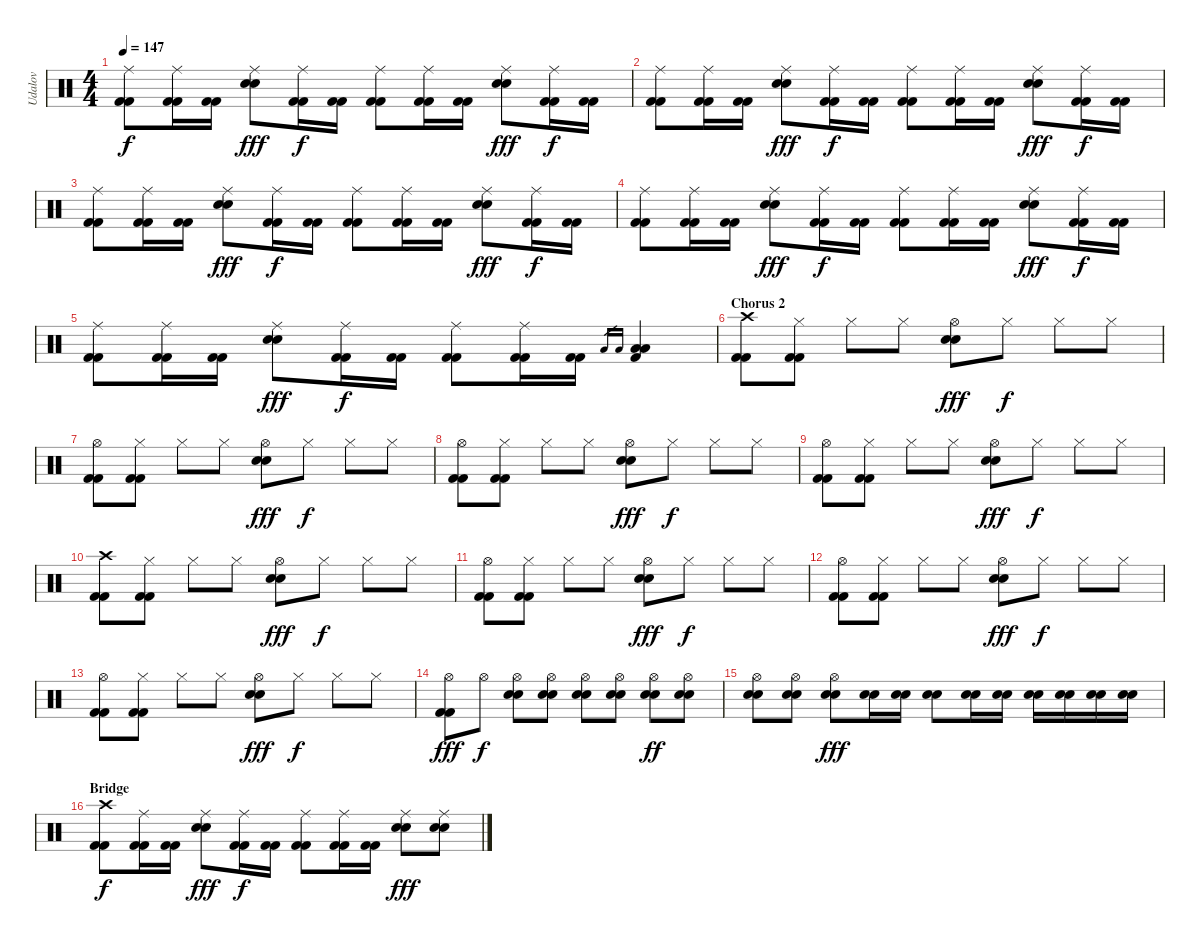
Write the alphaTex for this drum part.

\track ("Udalov" "Udalov") {instrument percussion}
\staff {score}
\articulation defaults
\ts (4 4)
\tempo 147
\clef neutral
\ks c
("Ride (middle)" "Kick (hit) 2" "Kick (hit) 2").8{dy f} ("Ride (middle)" "Kick (hit) 2" "Kick (hit) 2").16 ("Kick (hit) 2" "Kick (hit) 2").16 ("Ride (middle)" "Electric Snare (hit)" "Electric Snare (hit)").8{dy fff} ("Ride (middle)" "Kick (hit) 2" "Kick (hit) 2").16{dy f} ("Kick (hit) 2" "Kick (hit) 2").16 ("Ride (middle)" "Kick (hit) 2" "Kick (hit) 2").8 ("Ride (middle)" "Kick (hit) 2" "Kick (hit) 2").16 ("Kick (hit) 2" "Kick (hit) 2").16 ("Ride (middle)" "Electric Snare (hit)" "Electric Snare (hit)").8{dy fff} ("Ride (middle)" "Kick (hit) 2" "Kick (hit) 2").16{dy f} ("Kick (hit) 2" "Kick (hit) 2").16 |
("Ride (middle)" "Kick (hit) 2" "Kick (hit) 2").8 ("Ride (middle)" "Kick (hit) 2" "Kick (hit) 2").16 ("Kick (hit) 2" "Kick (hit) 2").16 ("Ride (middle)" "Electric Snare (hit)" "Electric Snare (hit)").8{dy fff} ("Ride (middle)" "Kick (hit) 2" "Kick (hit) 2").16{dy f} ("Kick (hit) 2" "Kick (hit) 2").16 ("Ride (middle)" "Kick (hit) 2" "Kick (hit) 2").8 ("Ride (middle)" "Kick (hit) 2" "Kick (hit) 2").16 ("Kick (hit) 2" "Kick (hit) 2").16 ("Ride (middle)" "Electric Snare (hit)" "Electric Snare (hit)").8{dy fff} ("Ride (middle)" "Kick (hit) 2" "Kick (hit) 2").16{dy f} ("Kick (hit) 2" "Kick (hit) 2").16 |
("Ride (middle)" "Kick (hit) 2" "Kick (hit) 2").8 ("Ride (middle)" "Kick (hit) 2" "Kick (hit) 2").16 ("Kick (hit) 2" "Kick (hit) 2").16 ("Ride (middle)" "Electric Snare (hit)" "Electric Snare (hit)").8{dy fff} ("Ride (middle)" "Kick (hit) 2" "Kick (hit) 2").16{dy f} ("Kick (hit) 2" "Kick (hit) 2").16 ("Ride (middle)" "Kick (hit) 2" "Kick (hit) 2").8 ("Ride (middle)" "Kick (hit) 2" "Kick (hit) 2").16 ("Kick (hit) 2" "Kick (hit) 2").16 ("Ride (middle)" "Electric Snare (hit)" "Electric Snare (hit)").8{dy fff} ("Ride (middle)" "Kick (hit) 2" "Kick (hit) 2").16{dy f} ("Kick (hit) 2" "Kick (hit) 2").16 |
("Ride (middle)" "Kick (hit) 2" "Kick (hit) 2").8 ("Ride (middle)" "Kick (hit) 2" "Kick (hit) 2").16 ("Kick (hit) 2" "Kick (hit) 2").16 ("Ride (middle)" "Electric Snare (hit)" "Electric Snare (hit)").8{dy fff} ("Ride (middle)" "Kick (hit) 2" "Kick (hit) 2").16{dy f} ("Kick (hit) 2" "Kick (hit) 2").16 ("Ride (middle)" "Kick (hit) 2" "Kick (hit) 2").8 ("Ride (middle)" "Kick (hit) 2" "Kick (hit) 2").16 ("Kick (hit) 2" "Kick (hit) 2").16 ("Ride (middle)" "Electric Snare (hit)" "Electric Snare (hit)").8{dy fff} ("Ride (middle)" "Kick (hit) 2" "Kick (hit) 2").16{dy f} ("Kick (hit) 2" "Kick (hit) 2").16 |
("Ride (middle)" "Kick (hit) 2" "Kick (hit) 2").8 ("Ride (middle)" "Kick (hit) 2" "Kick (hit) 2").16 ("Kick (hit) 2" "Kick (hit) 2").16 ("Ride (middle)" "Electric Snare (hit)" "Electric Snare (hit)").8{dy fff} ("Ride (middle)" "Kick (hit) 2" "Kick (hit) 2").16{dy f} ("Kick (hit) 2" "Kick (hit) 2").16 ("Ride (middle)" "Kick (hit) 2" "Kick (hit) 2").8 ("Ride (middle)" "Kick (hit) 2" "Kick (hit) 2").16 ("Kick (hit) 2" "Kick (hit) 2").16 "Low Tom (hit)".16{gr} "Low Tom (hit)".16{gr} ("Low Tom (hit)" "Low Tom (hit)" "Kick (hit) 2").4 |
\section ("" "Chorus 2")
("Crash high (hit)" "Kick (hit) 2" "Kick (hit) 2").8 ("Hi-Hat (closed)" "Kick (hit) 2" "Kick (hit) 2").8 "Hi-Hat (closed)".8 "Hi-Hat (closed)".8 ("Hi-Hat (open)" "Electric Snare (hit)" "Electric Snare (hit)").8{dy fff} "Hi-Hat (closed)".8{dy f} "Hi-Hat (closed)".8 "Hi-Hat (closed)".8 |
("Hi-Hat (open)" "Kick (hit) 2" "Kick (hit) 2").8 ("Hi-Hat (closed)" "Kick (hit) 2" "Kick (hit) 2").8 "Hi-Hat (closed)".8 "Hi-Hat (closed)".8 ("Hi-Hat (open)" "Electric Snare (hit)" "Electric Snare (hit)").8{dy fff} "Hi-Hat (closed)".8{dy f} "Hi-Hat (closed)".8 "Hi-Hat (closed)".8 |
("Hi-Hat (open)" "Kick (hit) 2" "Kick (hit) 2").8 ("Hi-Hat (closed)" "Kick (hit) 2" "Kick (hit) 2").8 "Hi-Hat (closed)".8 "Hi-Hat (closed)".8 ("Hi-Hat (open)" "Electric Snare (hit)" "Electric Snare (hit)").8{dy fff} "Hi-Hat (closed)".8{dy f} "Hi-Hat (closed)".8 "Hi-Hat (closed)".8 |
("Hi-Hat (open)" "Kick (hit) 2" "Kick (hit) 2").8 ("Hi-Hat (closed)" "Kick (hit) 2" "Kick (hit) 2").8 "Hi-Hat (closed)".8 "Hi-Hat (closed)".8 ("Hi-Hat (open)" "Electric Snare (hit)" "Electric Snare (hit)").8{dy fff} "Hi-Hat (closed)".8{dy f} "Hi-Hat (closed)".8 "Hi-Hat (closed)".8 |
("Crash high (hit)" "Kick (hit) 2" "Kick (hit) 2").8 ("Hi-Hat (closed)" "Kick (hit) 2" "Kick (hit) 2").8 "Hi-Hat (closed)".8 "Hi-Hat (closed)".8 ("Hi-Hat (open)" "Electric Snare (hit)" "Electric Snare (hit)").8{dy fff} "Hi-Hat (closed)".8{dy f} "Hi-Hat (closed)".8 "Hi-Hat (closed)".8 |
("Hi-Hat (open)" "Kick (hit) 2" "Kick (hit) 2").8 ("Hi-Hat (closed)" "Kick (hit) 2" "Kick (hit) 2").8 "Hi-Hat (closed)".8 "Hi-Hat (closed)".8 ("Hi-Hat (open)" "Electric Snare (hit)" "Electric Snare (hit)").8{dy fff} "Hi-Hat (closed)".8{dy f} "Hi-Hat (closed)".8 "Hi-Hat (closed)".8 |
("Hi-Hat (open)" "Kick (hit) 2" "Kick (hit) 2").8 ("Hi-Hat (closed)" "Kick (hit) 2" "Kick (hit) 2").8 "Hi-Hat (closed)".8 "Hi-Hat (closed)".8 ("Hi-Hat (open)" "Electric Snare (hit)" "Electric Snare (hit)").8{dy fff} "Hi-Hat (closed)".8{dy f} "Hi-Hat (closed)".8 "Hi-Hat (closed)".8 |
("Hi-Hat (open)" "Kick (hit) 2" "Kick (hit) 2").8 ("Hi-Hat (closed)" "Kick (hit) 2" "Kick (hit) 2").8 "Hi-Hat (closed)".8 "Hi-Hat (closed)".8 ("Hi-Hat (open)" "Electric Snare (hit)" "Electric Snare (hit)").8{dy fff} "Hi-Hat (closed)".8{dy f} "Hi-Hat (closed)".8 "Hi-Hat (closed)".8 |
("Hi-Hat (open)" "Kick (hit) 2" "Kick (hit) 2").8{dy fff} "Hi-Hat (open)".8{dy f} ("Hi-Hat (open)" "Electric Snare (hit)" "Electric Snare (hit)").8 ("Hi-Hat (open)" "Electric Snare (hit)" "Electric Snare (hit)").8 ("Hi-Hat (open)" "Electric Snare (hit)" "Electric Snare (hit)").8 ("Hi-Hat (open)" "Electric Snare (hit)" "Electric Snare (hit)").8 ("Hi-Hat (open)" "Electric Snare (hit)" "Electric Snare (hit)").8{dy ff} ("Hi-Hat (open)" "Electric Snare (hit)" "Electric Snare (hit)").8 |
("Hi-Hat (open)" "Electric Snare (hit)" "Electric Snare (hit)").8 ("Hi-Hat (open)" "Electric Snare (hit)" "Electric Snare (hit)").8 ("Hi-Hat (open)" "Electric Snare (hit)" "Electric Snare (hit)").8{dy fff} ("Electric Snare (hit)" "Electric Snare (hit)").16 ("Electric Snare (hit)" "Electric Snare (hit)").16 ("Electric Snare (hit)" "Electric Snare (hit)").8 ("Electric Snare (hit)" "Electric Snare (hit)").16 ("Electric Snare (hit)" "Electric Snare (hit)").16 ("Electric Snare (hit)" "Electric Snare (hit)").16 ("Electric Snare (hit)" "Electric Snare (hit)").16 ("Electric Snare (hit)" "Electric Snare (hit)").16 ("Electric Snare (hit)" "Electric Snare (hit)").16 |
\section ("" "Bridge")
("Crash high (hit)" "Kick (hit) 2" "Kick (hit) 2").8{dy f} ("Ride (middle)" "Kick (hit) 2" "Kick (hit) 2").16 ("Kick (hit) 2" "Kick (hit) 2").16 ("Ride (middle)" "Electric Snare (hit)" "Electric Snare (hit)").8{dy fff} ("Ride (middle)" "Kick (hit) 2" "Kick (hit) 2").16{dy f} ("Kick (hit) 2" "Kick (hit) 2").16 ("Ride (middle)" "Kick (hit) 2" "Kick (hit) 2").8 ("Ride (middle)" "Kick (hit) 2" "Kick (hit) 2").16 ("Kick (hit) 2" "Kick (hit) 2").16 ("Ride (middle)" "Electric Snare (hit)" "Electric Snare (hit)").8{dy fff} ("Ride (middle)" "Electric Snare (hit)" "Electric Snare (hit)").8
